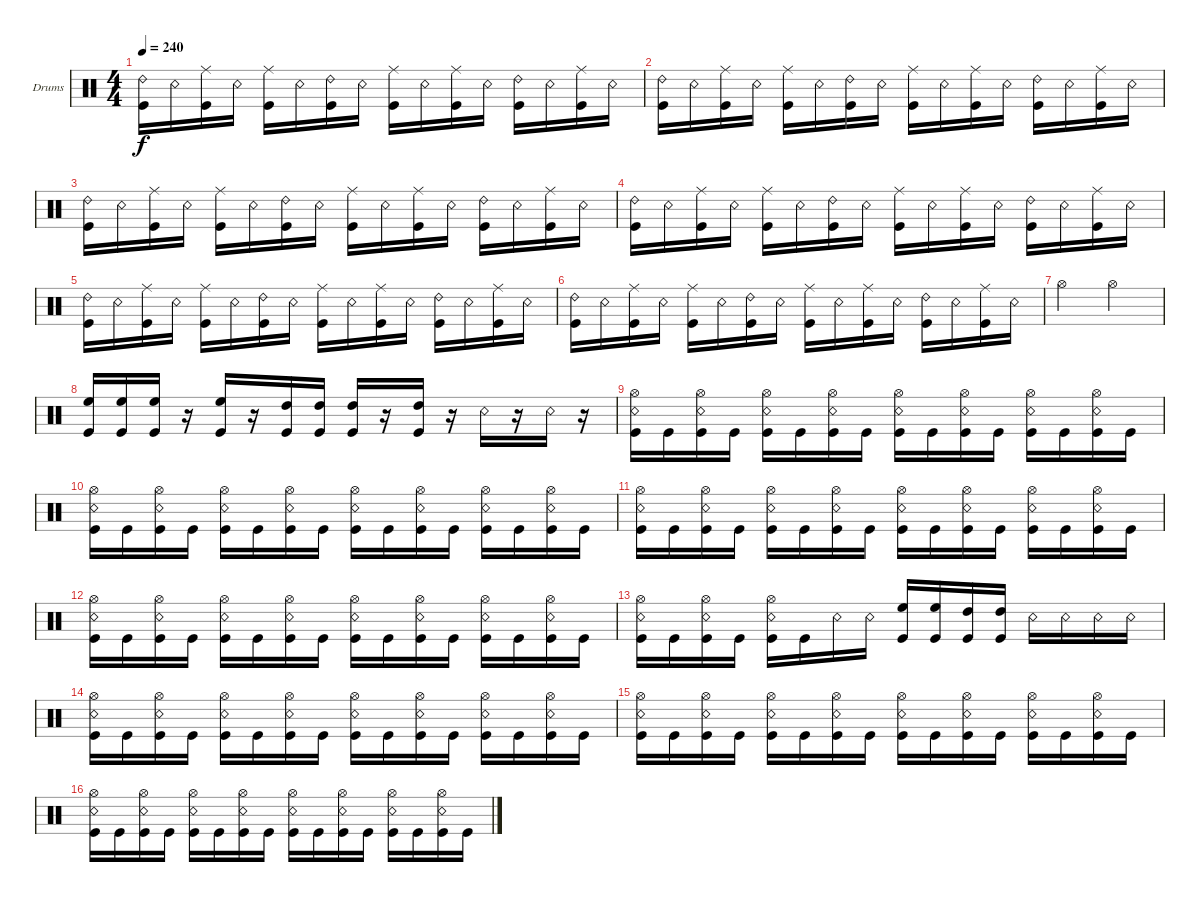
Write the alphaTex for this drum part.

\bracketExtendMode groupsimilarinstruments
\firstSystemTrackNameOrientation horizontal
\otherSystemsTrackNameOrientation horizontal
\track ("Drumkit" "Drums") {instrument percussion}
\staff {score}
\articulation defaults
\ts (4 4)
\tempo 240
\clef neutral
\ks c
("Ride (bell) 2" "Kick (hit)").16{dy f} "Snare (rim shot)".16 ("Ride (middle)" "Kick (hit)").16 "Snare (rim shot)".16 ("Ride (middle)" "Kick (hit)").16 "Snare (rim shot)".16 ("Ride (bell) 2" "Kick (hit)").16 "Snare (rim shot)".16 ("Ride (middle)" "Kick (hit)").16 "Snare (rim shot)".16 ("Ride (middle)" "Kick (hit)").16 "Snare (rim shot)".16 ("Ride (bell) 2" "Kick (hit)").16 "Snare (rim shot)".16 ("Ride (middle)" "Kick (hit)").16 "Snare (rim shot)".16 |
("Ride (bell) 2" "Kick (hit)").16 "Snare (rim shot)".16 ("Ride (middle)" "Kick (hit)").16 "Snare (rim shot)".16 ("Ride (middle)" "Kick (hit)").16 "Snare (rim shot)".16 ("Ride (bell) 2" "Kick (hit)").16 "Snare (rim shot)".16 ("Ride (middle)" "Kick (hit)").16 "Snare (rim shot)".16 ("Ride (middle)" "Kick (hit)").16 "Snare (rim shot)".16 ("Ride (bell) 2" "Kick (hit)").16 "Snare (rim shot)".16 ("Ride (middle)" "Kick (hit)").16 "Snare (rim shot)".16 |
("Ride (bell) 2" "Kick (hit)").16 "Snare (rim shot)".16 ("Ride (middle)" "Kick (hit)").16 "Snare (rim shot)".16 ("Ride (middle)" "Kick (hit)").16 "Snare (rim shot)".16 ("Ride (bell) 2" "Kick (hit)").16 "Snare (rim shot)".16 ("Ride (middle)" "Kick (hit)").16 "Snare (rim shot)".16 ("Ride (middle)" "Kick (hit)").16 "Snare (rim shot)".16 ("Ride (bell) 2" "Kick (hit)").16 "Snare (rim shot)".16 ("Ride (middle)" "Kick (hit)").16 "Snare (rim shot)".16 |
("Ride (bell) 2" "Kick (hit)").16 "Snare (rim shot)".16 ("Ride (middle)" "Kick (hit)").16 "Snare (rim shot)".16 ("Ride (middle)" "Kick (hit)").16 "Snare (rim shot)".16 ("Ride (bell) 2" "Kick (hit)").16 "Snare (rim shot)".16 ("Ride (middle)" "Kick (hit)").16 "Snare (rim shot)".16 ("Ride (middle)" "Kick (hit)").16 "Snare (rim shot)".16 ("Ride (bell) 2" "Kick (hit)").16 "Snare (rim shot)".16 ("Ride (middle)" "Kick (hit)").16 "Snare (rim shot)".16 |
("Ride (bell) 2" "Kick (hit)").16 "Snare (rim shot)".16 ("Ride (middle)" "Kick (hit)").16 "Snare (rim shot)".16 ("Ride (middle)" "Kick (hit)").16 "Snare (rim shot)".16 ("Ride (bell) 2" "Kick (hit)").16 "Snare (rim shot)".16 ("Ride (middle)" "Kick (hit)").16 "Snare (rim shot)".16 ("Ride (middle)" "Kick (hit)").16 "Snare (rim shot)".16 ("Ride (bell) 2" "Kick (hit)").16 "Snare (rim shot)".16 ("Ride (middle)" "Kick (hit)").16 "Snare (rim shot)".16 |
("Ride (bell) 2" "Kick (hit)").16 "Snare (rim shot)".16 ("Ride (middle)" "Kick (hit)").16 "Snare (rim shot)".16 ("Ride (middle)" "Kick (hit)").16 "Snare (rim shot)".16 ("Ride (bell) 2" "Kick (hit)").16 "Snare (rim shot)".16 ("Ride (middle)" "Kick (hit)").16 "Snare (rim shot)".16 ("Ride (middle)" "Kick (hit)").16 "Snare (rim shot)".16 ("Ride (bell) 2" "Kick (hit)").16 "Snare (rim shot)".16 ("Ride (middle)" "Kick (hit)").16 "Snare (rim shot)".16 |
"Hi-Hat (open)".2 "Hi-Hat (open)".2 |
("High Floor Tom (hit)" "Kick (hit)").16 ("High Floor Tom (hit)" "Kick (hit)").16 ("High Floor Tom (hit)" "Kick (hit)").16 r.16 ("High Floor Tom (hit)" "Kick (hit)").16 r.16 ("High Tom (hit)" "Kick (hit)").16 ("High Tom (hit)" "Kick (hit)").16 ("High Tom (hit)" "Kick (hit)").16 r.16 ("High Tom (hit)" "Kick (hit)").16 r.16 "Snare (rim shot)".16 r.16 "Snare (rim shot)".16 r.16 |
("Snare (rim shot)" "Hi-Hat (open)" "Kick (hit)").16 "Kick (hit)".16 ("Snare (rim shot)" "Hi-Hat (open)" "Kick (hit)").16 "Kick (hit)".16 ("Snare (rim shot)" "Hi-Hat (open)" "Kick (hit)").16 "Kick (hit)".16 ("Snare (rim shot)" "Hi-Hat (open)" "Kick (hit)").16 "Kick (hit)".16 ("Snare (rim shot)" "Hi-Hat (open)" "Kick (hit)").16 "Kick (hit)".16 ("Snare (rim shot)" "Hi-Hat (open)" "Kick (hit)").16 "Kick (hit)".16 ("Snare (rim shot)" "Hi-Hat (open)" "Kick (hit)").16 "Kick (hit)".16 ("Snare (rim shot)" "Hi-Hat (open)" "Kick (hit)").16 "Kick (hit)".16 |
("Snare (rim shot)" "Hi-Hat (open)" "Kick (hit)").16 "Kick (hit)".16 ("Snare (rim shot)" "Hi-Hat (open)" "Kick (hit)").16 "Kick (hit)".16 ("Snare (rim shot)" "Hi-Hat (open)" "Kick (hit)").16 "Kick (hit)".16 ("Snare (rim shot)" "Hi-Hat (open)" "Kick (hit)").16 "Kick (hit)".16 ("Snare (rim shot)" "Hi-Hat (open)" "Kick (hit)").16 "Kick (hit)".16 ("Snare (rim shot)" "Hi-Hat (open)" "Kick (hit)").16 "Kick (hit)".16 ("Snare (rim shot)" "Hi-Hat (open)" "Kick (hit)").16 "Kick (hit)".16 ("Snare (rim shot)" "Hi-Hat (open)" "Kick (hit)").16 "Kick (hit)".16 |
("Snare (rim shot)" "Hi-Hat (open)" "Kick (hit)").16 "Kick (hit)".16 ("Snare (rim shot)" "Hi-Hat (open)" "Kick (hit)").16 "Kick (hit)".16 ("Snare (rim shot)" "Hi-Hat (open)" "Kick (hit)").16 "Kick (hit)".16 ("Snare (rim shot)" "Hi-Hat (open)" "Kick (hit)").16 "Kick (hit)".16 ("Snare (rim shot)" "Hi-Hat (open)" "Kick (hit)").16 "Kick (hit)".16 ("Snare (rim shot)" "Hi-Hat (open)" "Kick (hit)").16 "Kick (hit)".16 ("Snare (rim shot)" "Hi-Hat (open)" "Kick (hit)").16 "Kick (hit)".16 ("Snare (rim shot)" "Hi-Hat (open)" "Kick (hit)").16 "Kick (hit)".16 |
("Snare (rim shot)" "Hi-Hat (open)" "Kick (hit)").16 "Kick (hit)".16 ("Snare (rim shot)" "Hi-Hat (open)" "Kick (hit)").16 "Kick (hit)".16 ("Snare (rim shot)" "Hi-Hat (open)" "Kick (hit)").16 "Kick (hit)".16 ("Snare (rim shot)" "Hi-Hat (open)" "Kick (hit)").16 "Kick (hit)".16 ("Snare (rim shot)" "Hi-Hat (open)" "Kick (hit)").16 "Kick (hit)".16 ("Snare (rim shot)" "Hi-Hat (open)" "Kick (hit)").16 "Kick (hit)".16 ("Snare (rim shot)" "Hi-Hat (open)" "Kick (hit)").16 "Kick (hit)".16 ("Snare (rim shot)" "Hi-Hat (open)" "Kick (hit)").16 "Kick (hit)".16 |
("Snare (rim shot)" "Hi-Hat (open)" "Kick (hit)").16 "Kick (hit)".16 ("Snare (rim shot)" "Hi-Hat (open)" "Kick (hit)").16 "Kick (hit)".16 ("Snare (rim shot)" "Hi-Hat (open)" "Kick (hit)").16 "Kick (hit)".16 "Snare (rim shot)".16 "Snare (rim shot)".16 ("High Floor Tom (hit)" "Kick (hit)").16 ("High Floor Tom (hit)" "Kick (hit)").16 ("High Tom (hit)" "Kick (hit)").16 ("High Tom (hit)" "Kick (hit)").16 "Snare (rim shot)".16 "Snare (rim shot)".16 "Snare (rim shot)".16 "Snare (rim shot)".16 |
("Snare (rim shot)" "Hi-Hat (open)" "Kick (hit)").16 "Kick (hit)".16 ("Snare (rim shot)" "Hi-Hat (open)" "Kick (hit)").16 "Kick (hit)".16 ("Snare (rim shot)" "Hi-Hat (open)" "Kick (hit)").16 "Kick (hit)".16 ("Snare (rim shot)" "Hi-Hat (open)" "Kick (hit)").16 "Kick (hit)".16 ("Snare (rim shot)" "Hi-Hat (open)" "Kick (hit)").16 "Kick (hit)".16 ("Snare (rim shot)" "Hi-Hat (open)" "Kick (hit)").16 "Kick (hit)".16 ("Snare (rim shot)" "Hi-Hat (open)" "Kick (hit)").16 "Kick (hit)".16 ("Snare (rim shot)" "Hi-Hat (open)" "Kick (hit)").16 "Kick (hit)".16 |
("Snare (rim shot)" "Hi-Hat (open)" "Kick (hit)").16 "Kick (hit)".16 ("Snare (rim shot)" "Hi-Hat (open)" "Kick (hit)").16 "Kick (hit)".16 ("Snare (rim shot)" "Hi-Hat (open)" "Kick (hit)").16 "Kick (hit)".16 ("Snare (rim shot)" "Hi-Hat (open)" "Kick (hit)").16 "Kick (hit)".16 ("Snare (rim shot)" "Hi-Hat (open)" "Kick (hit)").16 "Kick (hit)".16 ("Snare (rim shot)" "Hi-Hat (open)" "Kick (hit)").16 "Kick (hit)".16 ("Snare (rim shot)" "Hi-Hat (open)" "Kick (hit)").16 "Kick (hit)".16 ("Snare (rim shot)" "Hi-Hat (open)" "Kick (hit)").16 "Kick (hit)".16 |
("Snare (rim shot)" "Hi-Hat (open)" "Kick (hit)").16 "Kick (hit)".16 ("Snare (rim shot)" "Hi-Hat (open)" "Kick (hit)").16 "Kick (hit)".16 ("Snare (rim shot)" "Hi-Hat (open)" "Kick (hit)").16 "Kick (hit)".16 ("Snare (rim shot)" "Hi-Hat (open)" "Kick (hit)").16 "Kick (hit)".16 ("Snare (rim shot)" "Hi-Hat (open)" "Kick (hit)").16 "Kick (hit)".16 ("Snare (rim shot)" "Hi-Hat (open)" "Kick (hit)").16 "Kick (hit)".16 ("Snare (rim shot)" "Hi-Hat (open)" "Kick (hit)").16 "Kick (hit)".16 ("Snare (rim shot)" "Hi-Hat (open)" "Kick (hit)").16 "Kick (hit)".16
